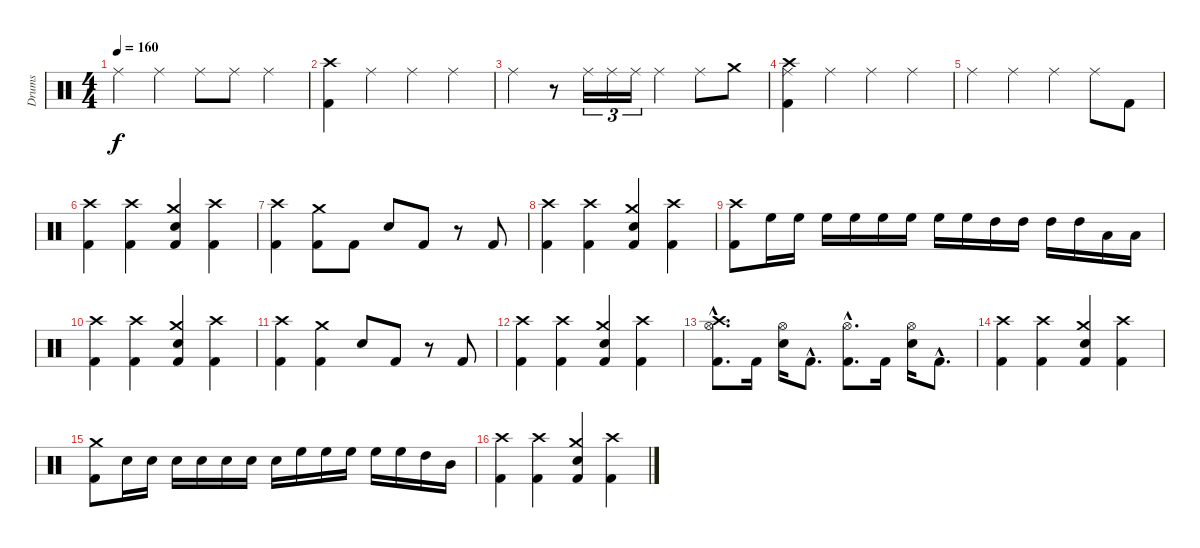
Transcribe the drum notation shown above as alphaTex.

\track ("Drums" "Drums") {instrument percussion}
\staff {score}
\articulation defaults
\ts (4 4)
\tempo 160
\clef neutral
\ks c "Ride (middle)".4{dy f} "Ride (middle)".4 "Ride (middle)".8 "Ride (middle)".8 "Ride (middle)".4
|
("Crash high (hit)" "Kick (hit) 2").4 "Ride (middle)".4 "Ride (middle)".4 "Ride (middle)".4 |
"Ride (middle)".4 r.8 "Ride (middle)".16{tu (3 2)} "Ride (middle)".16{tu (3 2)} "Ride (middle)".16{tu (3 2)} "Ride (middle)".4 "Ride (middle)".8 "Crash medium (hit)".8 |
("Crash high (hit)" "Ride (middle)" "Kick (hit) 2").4 "Ride (middle)".4 "Ride (middle)".4 "Ride (middle)".4 |
"Ride (middle)".4 "Ride (middle)".4 "Ride (middle)".4 "Ride (middle)".8 "Kick (hit) 2".8 |
("Crash high (hit)" "Kick (hit) 2").4 ("Crash high (hit)" "Kick (hit) 2").4 ("Crash medium (hit)" "Snare (hit) 2" "Kick (hit) 2").4 ("Crash high (hit)" "Kick (hit) 2").4 |
("Crash high (hit)" "Kick (hit) 2").4 ("Crash medium (hit)" "Kick (hit) 2").8 "Kick (hit) 2".8 "Snare (hit) 2".8 "Kick (hit) 2".8 r.8 "Kick (hit) 2".8 |
("Crash high (hit)" "Kick (hit) 2").4 ("Crash high (hit)" "Kick (hit) 2").4 ("Crash medium (hit)" "Snare (hit) 2" "Kick (hit) 2").4 ("Crash high (hit)" "Kick (hit) 2").4 |
("Crash high (hit)" "Kick (hit) 2").8 "High Floor Tom (hit)".16 "High Floor Tom (hit)".16 "High Floor Tom (hit)".16 "High Floor Tom (hit)".16 "High Floor Tom (hit)".16 "High Floor Tom (hit)".16 "High Floor Tom (hit)".16 "High Floor Tom (hit)".16 "High Tom (hit)".16 "High Tom (hit)".16 "High Tom (hit)".16 "High Tom (hit)".16 "Low Tom (hit)".16 "Low Floor Tom (hit)".16 |
("Crash high (hit)" "Kick (hit) 2").4 ("Crash high (hit)" "Kick (hit) 2").4 ("Crash medium (hit)" "Snare (hit) 2" "Kick (hit) 2").4 ("Crash high (hit)" "Kick (hit) 2").4 |
("Crash high (hit)" "Kick (hit) 2").4 ("Crash medium (hit)" "Kick (hit) 2").4 "Snare (hit) 2".8 "Kick (hit) 2".8 r.8 "Kick (hit) 2".8 |
("Crash high (hit)" "Kick (hit) 2").4 ("Crash high (hit)" "Kick (hit) 2").4 ("Crash medium (hit)" "Snare (hit) 2" "Kick (hit) 2").4 ("Crash high (hit)" "Kick (hit) 2").4 |
("Crash high (hit)"{hac} "Hi-Hat (open)"{hac} "Kick (hit) 2"{hac}).8{d} "Kick (hit) 2".16 ("Snare (hit) 2" "Hi-Hat (open)").16 "Kick (hit) 2"{hac}.8{d} ("Hi-Hat (open)"{hac} "Kick (hit) 2"{hac}).8{d} "Kick (hit) 2".16 ("Snare (hit) 2" "Hi-Hat (open)").16 "Kick (hit) 2"{hac}.8{d} |
("Crash high (hit)" "Kick (hit) 2").4 ("Crash high (hit)" "Kick (hit) 2").4 ("Crash medium (hit)" "Snare (hit) 2" "Kick (hit) 2").4 ("Crash high (hit)" "Kick (hit) 2").4 |
("Crash medium (hit)" "Kick (hit) 2").8 "Snare (hit) 2".16 "Snare (hit) 2".16 "Snare (hit) 2".16 "Snare (hit) 2".16 "Snare (hit) 2".16 "Snare (hit) 2".16 "Snare (hit) 2".16 "High Floor Tom (hit)".16 "High Floor Tom (hit)".16 "High Floor Tom (hit)".16 "High Floor Tom (hit)".16 "High Floor Tom (hit)".16 "High Tom (hit)".16 "Mid Tom (hit)".16 |
("Crash high (hit)" "Kick (hit) 2").4 ("Crash high (hit)" "Kick (hit) 2").4 ("Crash medium (hit)" "Snare (hit) 2" "Kick (hit) 2").4 ("Crash high (hit)" "Kick (hit) 2").4
